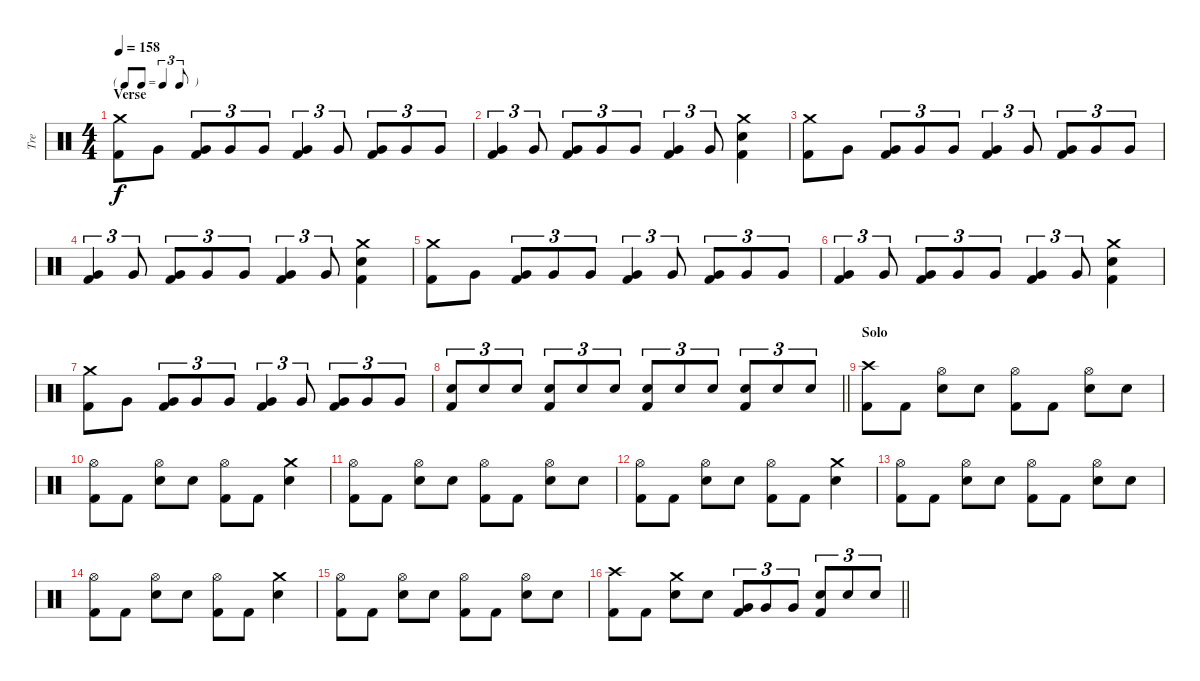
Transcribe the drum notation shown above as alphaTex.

\track ("Tre" "Tre") {instrument percussion}
\staff {score}
\articulation defaults
\ts (4 4)
\tf triplet8th
\section ("" "Verse")
\tempo 158
\clef neutral
\ks c
("Crash medium (hit)" "Kick (hit) 2").8{dy f} "Very Low Tom (hit)".8 ("Very Low Tom (hit)" "Kick (hit) 2").8{tu (3 2)} "Very Low Tom (hit)".8{tu (3 2)} "Very Low Tom (hit)".8{tu (3 2)} ("Very Low Tom (hit)" "Kick (hit) 2").4{tu (3 2)} "Very Low Tom (hit)".8{tu (3 2)} ("Very Low Tom (hit)" "Kick (hit) 2").8{tu (3 2)} "Very Low Tom (hit)".8{tu (3 2)} "Very Low Tom (hit)".8{tu (3 2)} |
("Very Low Tom (hit)" "Kick (hit) 2").4{tu (3 2)} "Very Low Tom (hit)".8{tu (3 2)} ("Very Low Tom (hit)" "Kick (hit) 2").8{tu (3 2)} "Very Low Tom (hit)".8{tu (3 2)} "Very Low Tom (hit)".8{tu (3 2)} ("Very Low Tom (hit)" "Kick (hit) 2").4{tu (3 2)} "Very Low Tom (hit)".8{tu (3 2)} ("Crash medium (hit)" "Snare (hit) 2" "Kick (hit) 2").4 |
("Crash medium (hit)" "Kick (hit) 2").8 "Very Low Tom (hit)".8 ("Very Low Tom (hit)" "Kick (hit) 2").8{tu (3 2)} "Very Low Tom (hit)".8{tu (3 2)} "Very Low Tom (hit)".8{tu (3 2)} ("Very Low Tom (hit)" "Kick (hit) 2").4{tu (3 2)} "Very Low Tom (hit)".8{tu (3 2)} ("Very Low Tom (hit)" "Kick (hit) 2").8{tu (3 2)} "Very Low Tom (hit)".8{tu (3 2)} "Very Low Tom (hit)".8{tu (3 2)} |
("Very Low Tom (hit)" "Kick (hit) 2").4{tu (3 2)} "Very Low Tom (hit)".8{tu (3 2)} ("Very Low Tom (hit)" "Kick (hit) 2").8{tu (3 2)} "Very Low Tom (hit)".8{tu (3 2)} "Very Low Tom (hit)".8{tu (3 2)} ("Very Low Tom (hit)" "Kick (hit) 2").4{tu (3 2)} "Very Low Tom (hit)".8{tu (3 2)} ("Crash medium (hit)" "Snare (hit) 2" "Kick (hit) 2").4 |
("Crash medium (hit)" "Kick (hit) 2").8 "Very Low Tom (hit)".8 ("Very Low Tom (hit)" "Kick (hit) 2").8{tu (3 2)} "Very Low Tom (hit)".8{tu (3 2)} "Very Low Tom (hit)".8{tu (3 2)} ("Very Low Tom (hit)" "Kick (hit) 2").4{tu (3 2)} "Very Low Tom (hit)".8{tu (3 2)} ("Very Low Tom (hit)" "Kick (hit) 2").8{tu (3 2)} "Very Low Tom (hit)".8{tu (3 2)} "Very Low Tom (hit)".8{tu (3 2)} |
("Very Low Tom (hit)" "Kick (hit) 2").4{tu (3 2)} "Very Low Tom (hit)".8{tu (3 2)} ("Very Low Tom (hit)" "Kick (hit) 2").8{tu (3 2)} "Very Low Tom (hit)".8{tu (3 2)} "Very Low Tom (hit)".8{tu (3 2)} ("Very Low Tom (hit)" "Kick (hit) 2").4{tu (3 2)} "Very Low Tom (hit)".8{tu (3 2)} ("Crash medium (hit)" "Snare (hit) 2" "Kick (hit) 2").4 |
("Crash medium (hit)" "Kick (hit) 2").8 "Very Low Tom (hit)".8 ("Very Low Tom (hit)" "Kick (hit) 2").8{tu (3 2)} "Very Low Tom (hit)".8{tu (3 2)} "Very Low Tom (hit)".8{tu (3 2)} ("Very Low Tom (hit)" "Kick (hit) 2").4{tu (3 2)} "Very Low Tom (hit)".8{tu (3 2)} ("Very Low Tom (hit)" "Kick (hit) 2").8{tu (3 2)} "Very Low Tom (hit)".8{tu (3 2)} "Very Low Tom (hit)".8{tu (3 2)} |
\barLineRight lightlight
("Snare (hit) 2" "Kick (hit) 2").8{tu (3 2)} "Snare (hit) 2".8{tu (3 2)} "Snare (hit) 2".8{tu (3 2)} ("Snare (hit) 2" "Kick (hit) 2").8{tu (3 2)} "Snare (hit) 2".8{tu (3 2)} "Snare (hit) 2".8{tu (3 2)} ("Snare (hit) 2" "Kick (hit) 2").8{tu (3 2)} "Snare (hit) 2".8{tu (3 2)} "Snare (hit) 2".8{tu (3 2)} ("Snare (hit) 2" "Kick (hit) 2").8{tu (3 2)} "Snare (hit) 2".8{tu (3 2)} "Snare (hit) 2".8{tu (3 2)} |
\section ("" "Solo")
("Crash high (hit)" "Kick (hit) 2").8 "Kick (hit) 2".8 ("Hi-Hat (open)" "Snare (hit) 2").8 "Snare (hit) 2".8 ("Hi-Hat (open)" "Kick (hit) 2").8 "Kick (hit) 2".8 ("Hi-Hat (open)" "Snare (hit) 2").8 "Snare (hit) 2".8 |
("Hi-Hat (open)" "Kick (hit) 2").8 "Kick (hit) 2".8 ("Hi-Hat (open)" "Snare (hit) 2").8 "Snare (hit) 2".8 ("Hi-Hat (open)" "Kick (hit) 2").8 "Kick (hit) 2".8 ("Crash medium (hit)" "Snare (hit) 2").4 |
("Hi-Hat (open)" "Kick (hit) 2").8 "Kick (hit) 2".8 ("Hi-Hat (open)" "Snare (hit) 2").8 "Snare (hit) 2".8 ("Hi-Hat (open)" "Kick (hit) 2").8 "Kick (hit) 2".8 ("Hi-Hat (open)" "Snare (hit) 2").8 "Snare (hit) 2".8 |
("Hi-Hat (open)" "Kick (hit) 2").8 "Kick (hit) 2".8 ("Hi-Hat (open)" "Snare (hit) 2").8 "Snare (hit) 2".8 ("Hi-Hat (open)" "Kick (hit) 2").8 "Kick (hit) 2".8 ("Crash medium (hit)" "Snare (hit) 2").4 |
("Hi-Hat (open)" "Kick (hit) 2").8 "Kick (hit) 2".8 ("Hi-Hat (open)" "Snare (hit) 2").8 "Snare (hit) 2".8 ("Hi-Hat (open)" "Kick (hit) 2").8 "Kick (hit) 2".8 ("Hi-Hat (open)" "Snare (hit) 2").8 "Snare (hit) 2".8 |
("Hi-Hat (open)" "Kick (hit) 2").8 "Kick (hit) 2".8 ("Hi-Hat (open)" "Snare (hit) 2").8 "Snare (hit) 2".8 ("Hi-Hat (open)" "Kick (hit) 2").8 "Kick (hit) 2".8 ("Crash medium (hit)" "Snare (hit) 2").4 |
("Hi-Hat (open)" "Kick (hit) 2").8 "Kick (hit) 2".8 ("Hi-Hat (open)" "Snare (hit) 2").8 "Snare (hit) 2".8 ("Hi-Hat (open)" "Kick (hit) 2").8 "Kick (hit) 2".8 ("Hi-Hat (open)" "Snare (hit) 2").8 "Snare (hit) 2".8 |
\barLineRight lightlight
("Crash high (hit)" "Kick (hit) 2").8 "Kick (hit) 2".8 ("Crash medium (hit)" "Snare (hit) 2").8 "Snare (hit) 2".8 ("Very Low Tom (hit)" "Kick (hit) 2").8{tu (3 2)} "Very Low Tom (hit)".8{tu (3 2)} "Very Low Tom (hit)".8{tu (3 2)} ("Snare (hit) 2" "Kick (hit) 2").8{tu (3 2)} "Snare (hit) 2".8{tu (3 2)} "Snare (hit) 2".8{tu (3 2)}
